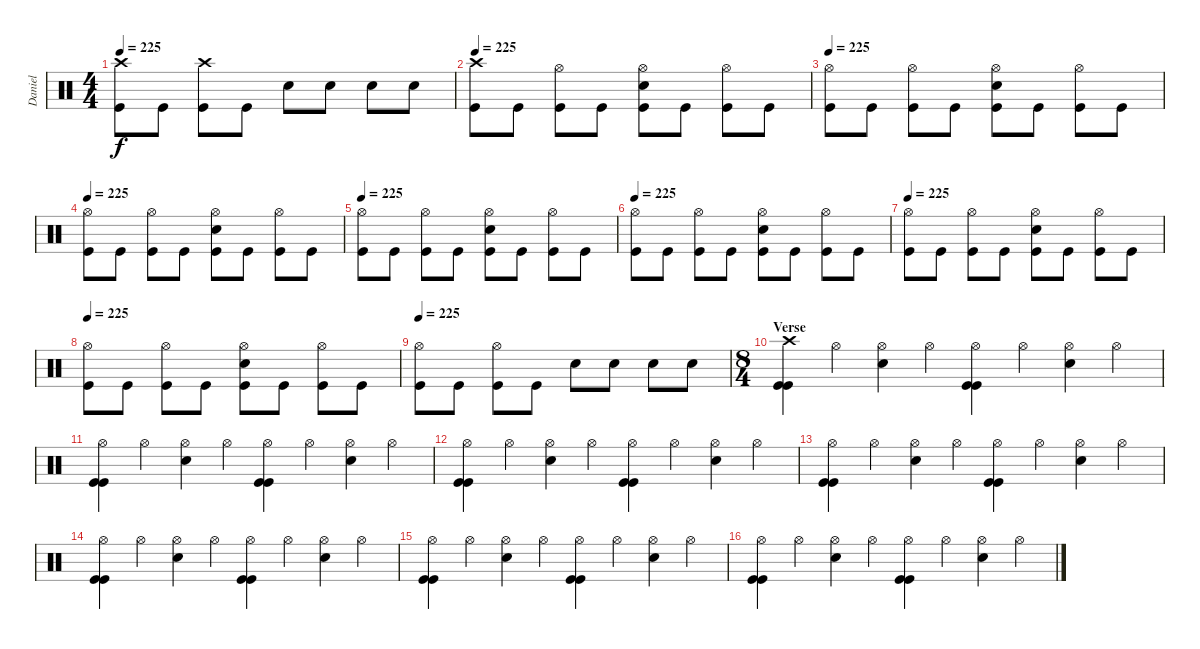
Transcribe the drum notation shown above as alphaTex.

\track ("Daniel" "Daniel") {instrument percussion}
\staff {score}
\articulation defaults
\ts (4 4)
\tempo 225
\clef neutral
\ks c
("Crash high (hit)" "Kick (hit)").8{dy f} "Kick (hit)".8 ("Crash high (hit)" "Kick (hit)").8 "Kick (hit)".8 "Snare (hit) 2".8 "Snare (hit) 2".8 "Snare (hit) 2".8 "Snare (hit) 2".8 |
\tempo 225
("Crash high (hit)" "Kick (hit)").8 "Kick (hit)".8 ("Hi-Hat (open)" "Kick (hit)").8 "Kick (hit)".8 ("Hi-Hat (open)" "Snare (hit) 2" "Kick (hit)").8 "Kick (hit)".8 ("Hi-Hat (open)" "Kick (hit)").8 "Kick (hit)".8 |
\tempo 225
("Hi-Hat (open)" "Kick (hit)").8 "Kick (hit)".8 ("Hi-Hat (open)" "Kick (hit)").8 "Kick (hit)".8 ("Hi-Hat (open)" "Snare (hit) 2" "Kick (hit)").8 "Kick (hit)".8 ("Hi-Hat (open)" "Kick (hit)").8 "Kick (hit)".8 |
\tempo 225
("Hi-Hat (open)" "Kick (hit)").8 "Kick (hit)".8 ("Hi-Hat (open)" "Kick (hit)").8 "Kick (hit)".8 ("Hi-Hat (open)" "Snare (hit) 2" "Kick (hit)").8 "Kick (hit)".8 ("Hi-Hat (open)" "Kick (hit)").8 "Kick (hit)".8 |
\tempo 225
("Hi-Hat (open)" "Kick (hit)").8 "Kick (hit)".8 ("Hi-Hat (open)" "Kick (hit)").8 "Kick (hit)".8 ("Hi-Hat (open)" "Snare (hit) 2" "Kick (hit)").8 "Kick (hit)".8 ("Hi-Hat (open)" "Kick (hit)").8 "Kick (hit)".8 |
\tempo 225
("Hi-Hat (open)" "Kick (hit)").8 "Kick (hit)".8 ("Hi-Hat (open)" "Kick (hit)").8 "Kick (hit)".8 ("Hi-Hat (open)" "Snare (hit) 2" "Kick (hit)").8 "Kick (hit)".8 ("Hi-Hat (open)" "Kick (hit)").8 "Kick (hit)".8 |
\tempo 225
("Hi-Hat (open)" "Kick (hit)").8 "Kick (hit)".8 ("Hi-Hat (open)" "Kick (hit)").8 "Kick (hit)".8 ("Hi-Hat (open)" "Snare (hit) 2" "Kick (hit)").8 "Kick (hit)".8 ("Hi-Hat (open)" "Kick (hit)").8 "Kick (hit)".8 |
\tempo 225
("Hi-Hat (open)" "Kick (hit)").8 "Kick (hit)".8 ("Hi-Hat (open)" "Kick (hit)").8 "Kick (hit)".8 ("Hi-Hat (open)" "Snare (hit) 2" "Kick (hit)").8 "Kick (hit)".8 ("Hi-Hat (open)" "Kick (hit)").8 "Kick (hit)".8 |
\tempo 225
("Hi-Hat (open)" "Kick (hit)").8 "Kick (hit)".8 ("Hi-Hat (open)" "Kick (hit)").8 "Kick (hit)".8 "Snare (hit) 2".8 "Snare (hit) 2".8 "Snare (hit) 2".8 "Snare (hit) 2".8 |
\ts (8 4)
\section ("" "Verse")
("Crash high (hit)" "Kick (hit)" "Kick (hit)").4 "Hi-Hat (open)".4 ("Hi-Hat (open)" "Snare (hit) 2").4 "Hi-Hat (open)".4 ("Hi-Hat (open)" "Kick (hit)" "Kick (hit)").4 "Hi-Hat (open)".4 ("Hi-Hat (open)" "Snare (hit) 2").4 "Hi-Hat (open)".4 |
("Hi-Hat (open)" "Kick (hit)" "Kick (hit)").4 "Hi-Hat (open)".4 ("Hi-Hat (open)" "Snare (hit) 2").4 "Hi-Hat (open)".4 ("Hi-Hat (open)" "Kick (hit)" "Kick (hit)").4 "Hi-Hat (open)".4 ("Hi-Hat (open)" "Snare (hit) 2").4 "Hi-Hat (open)".4 |
("Hi-Hat (open)" "Kick (hit)" "Kick (hit)").4 "Hi-Hat (open)".4 ("Hi-Hat (open)" "Snare (hit) 2").4 "Hi-Hat (open)".4 ("Hi-Hat (open)" "Kick (hit)" "Kick (hit)").4 "Hi-Hat (open)".4 ("Hi-Hat (open)" "Snare (hit) 2").4 "Hi-Hat (open)".4 |
("Hi-Hat (open)" "Kick (hit)" "Kick (hit)").4 "Hi-Hat (open)".4 ("Hi-Hat (open)" "Snare (hit) 2").4 "Hi-Hat (open)".4 ("Hi-Hat (open)" "Kick (hit)" "Kick (hit)").4 "Hi-Hat (open)".4 ("Hi-Hat (open)" "Snare (hit) 2").4 "Hi-Hat (open)".4 |
("Hi-Hat (open)" "Kick (hit)" "Kick (hit)").4 "Hi-Hat (open)".4 ("Hi-Hat (open)" "Snare (hit) 2").4 "Hi-Hat (open)".4 ("Hi-Hat (open)" "Kick (hit)" "Kick (hit)").4 "Hi-Hat (open)".4 ("Hi-Hat (open)" "Snare (hit) 2").4 "Hi-Hat (open)".4 |
("Hi-Hat (open)" "Kick (hit)" "Kick (hit)").4 "Hi-Hat (open)".4 ("Hi-Hat (open)" "Snare (hit) 2").4 "Hi-Hat (open)".4 ("Hi-Hat (open)" "Kick (hit)" "Kick (hit)").4 "Hi-Hat (open)".4 ("Hi-Hat (open)" "Snare (hit) 2").4 "Hi-Hat (open)".4 |
("Hi-Hat (open)" "Kick (hit)" "Kick (hit)").4 "Hi-Hat (open)".4 ("Hi-Hat (open)" "Snare (hit) 2").4 "Hi-Hat (open)".4 ("Hi-Hat (open)" "Kick (hit)" "Kick (hit)").4 "Hi-Hat (open)".4 ("Hi-Hat (open)" "Snare (hit) 2").4 "Hi-Hat (open)".4
